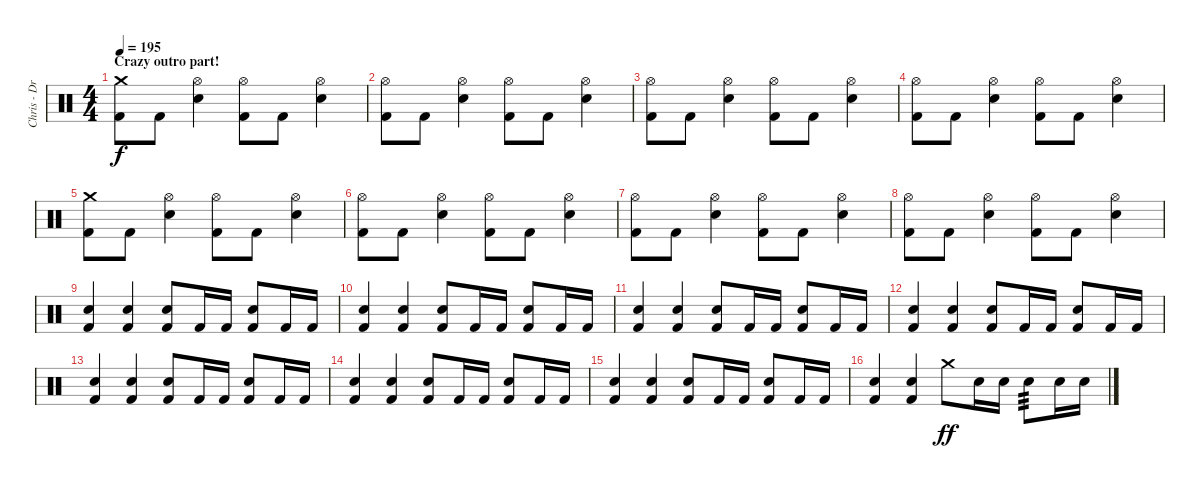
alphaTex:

\track ("Chris - Drums" "Chris - Dr") {instrument percussion}
\staff {score}
\articulation defaults
\ts (4 4)
\section ("" "Crazy outro part!")
\tempo 195
\clef neutral
\ks c
("Crash medium (hit)" "Kick (hit) 2").8{dy f} "Kick (hit) 2".8 ("Hi-Hat (open)" "Electric Snare (hit)").4 ("Hi-Hat (open)" "Kick (hit) 2").8 "Kick (hit) 2".8 ("Hi-Hat (open)" "Electric Snare (hit)").4 |
("Hi-Hat (open)" "Kick (hit) 2").8 "Kick (hit) 2".8 ("Hi-Hat (open)" "Electric Snare (hit)").4 ("Hi-Hat (open)" "Kick (hit) 2").8 "Kick (hit) 2".8 ("Hi-Hat (open)" "Electric Snare (hit)").4 |
("Hi-Hat (open)" "Kick (hit) 2").8 "Kick (hit) 2".8 ("Hi-Hat (open)" "Electric Snare (hit)").4 ("Hi-Hat (open)" "Kick (hit) 2").8 "Kick (hit) 2".8 ("Hi-Hat (open)" "Electric Snare (hit)").4 |
("Hi-Hat (open)" "Kick (hit) 2").8 "Kick (hit) 2".8 ("Hi-Hat (open)" "Electric Snare (hit)").4 ("Hi-Hat (open)" "Kick (hit) 2").8 "Kick (hit) 2".8 ("Hi-Hat (open)" "Electric Snare (hit)").4 |
("Crash medium (hit)" "Kick (hit) 2").8 "Kick (hit) 2".8 ("Hi-Hat (open)" "Electric Snare (hit)").4 ("Hi-Hat (open)" "Kick (hit) 2").8 "Kick (hit) 2".8 ("Hi-Hat (open)" "Electric Snare (hit)").4 |
("Hi-Hat (open)" "Kick (hit) 2").8 "Kick (hit) 2".8 ("Hi-Hat (open)" "Electric Snare (hit)").4 ("Hi-Hat (open)" "Kick (hit) 2").8 "Kick (hit) 2".8 ("Hi-Hat (open)" "Electric Snare (hit)").4 |
("Hi-Hat (open)" "Kick (hit) 2").8 "Kick (hit) 2".8 ("Hi-Hat (open)" "Electric Snare (hit)").4 ("Hi-Hat (open)" "Kick (hit) 2").8 "Kick (hit) 2".8 ("Hi-Hat (open)" "Electric Snare (hit)").4 |
("Hi-Hat (open)" "Kick (hit) 2").8 "Kick (hit) 2".8 ("Hi-Hat (open)" "Electric Snare (hit)").4 ("Hi-Hat (open)" "Kick (hit) 2").8 "Kick (hit) 2".8 ("Hi-Hat (open)" "Electric Snare (hit)").4 |
("Electric Snare (hit)" "Kick (hit) 2").4 ("Electric Snare (hit)" "Kick (hit) 2").4 ("Electric Snare (hit)" "Kick (hit) 2").8 "Kick (hit) 2".16 "Kick (hit) 2".16 ("Electric Snare (hit)" "Kick (hit) 2").8 "Kick (hit) 2".16 "Kick (hit) 2".16 |
("Electric Snare (hit)" "Kick (hit) 2").4 ("Electric Snare (hit)" "Kick (hit) 2").4 ("Electric Snare (hit)" "Kick (hit) 2").8 "Kick (hit) 2".16 "Kick (hit) 2".16 ("Electric Snare (hit)" "Kick (hit) 2").8 "Kick (hit) 2".16 "Kick (hit) 2".16 |
("Electric Snare (hit)" "Kick (hit) 2").4 ("Electric Snare (hit)" "Kick (hit) 2").4 ("Electric Snare (hit)" "Kick (hit) 2").8 "Kick (hit) 2".16 "Kick (hit) 2".16 ("Electric Snare (hit)" "Kick (hit) 2").8 "Kick (hit) 2".16 "Kick (hit) 2".16 |
("Electric Snare (hit)" "Kick (hit) 2").4 ("Electric Snare (hit)" "Kick (hit) 2").4 ("Electric Snare (hit)" "Kick (hit) 2").8 "Kick (hit) 2".16 "Kick (hit) 2".16 ("Electric Snare (hit)" "Kick (hit) 2").8 "Kick (hit) 2".16 "Kick (hit) 2".16 |
("Electric Snare (hit)" "Kick (hit) 2").4 ("Electric Snare (hit)" "Kick (hit) 2").4 ("Electric Snare (hit)" "Kick (hit) 2").8 "Kick (hit) 2".16 "Kick (hit) 2".16 ("Electric Snare (hit)" "Kick (hit) 2").8 "Kick (hit) 2".16 "Kick (hit) 2".16 |
("Electric Snare (hit)" "Kick (hit) 2").4 ("Electric Snare (hit)" "Kick (hit) 2").4 ("Electric Snare (hit)" "Kick (hit) 2").8 "Kick (hit) 2".16 "Kick (hit) 2".16 ("Electric Snare (hit)" "Kick (hit) 2").8 "Kick (hit) 2".16 "Kick (hit) 2".16 |
("Electric Snare (hit)" "Kick (hit) 2").4 ("Electric Snare (hit)" "Kick (hit) 2").4 ("Electric Snare (hit)" "Kick (hit) 2").8 "Kick (hit) 2".16 "Kick (hit) 2".16 ("Electric Snare (hit)" "Kick (hit) 2").8 "Kick (hit) 2".16 "Kick (hit) 2".16 |
("Electric Snare (hit)" "Kick (hit) 2").4 ("Electric Snare (hit)" "Kick (hit) 2").4 "Crash medium (hit)".8{dy ff} "Electric Snare (hit)".16 "Electric Snare (hit)".16 "Electric Snare (hit)".8{tp 3} "Electric Snare (hit)".16 "Electric Snare (hit)".16
